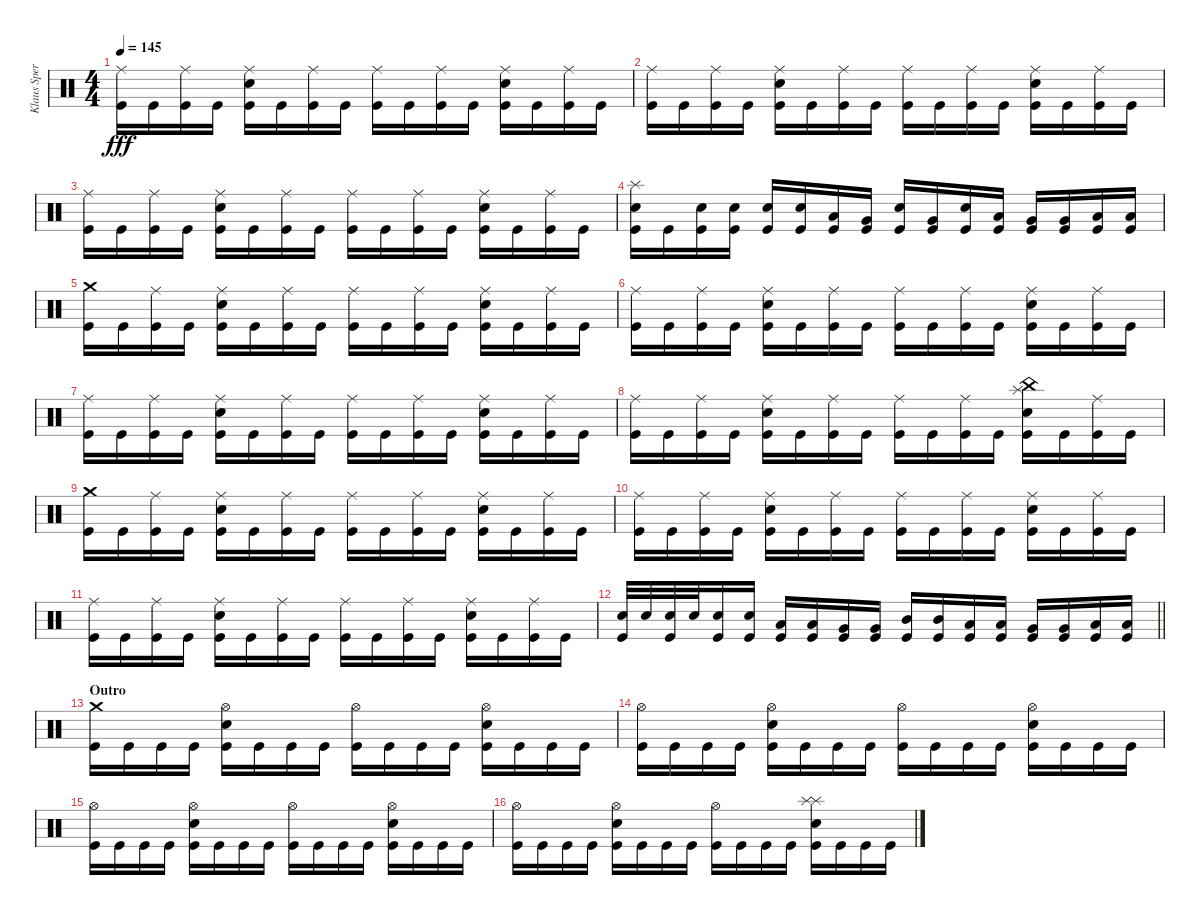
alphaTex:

\track ("Klaus Sperling" "Klaus Sper") {instrument percussion}
\staff {score}
\articulation defaults
\ts (4 4)
\tempo 145
\clef neutral
\ks c
("Ride (middle)" "Kick (hit)").16{dy fff} "Kick (hit)".16 ("Ride (middle)" "Kick (hit)").16 "Kick (hit)".16 ("Ride (middle)" "Electric Snare (hit)" "Kick (hit)").16 "Kick (hit)".16 ("Ride (middle)" "Kick (hit)").16 "Kick (hit)".16 ("Ride (middle)" "Kick (hit)").16 "Kick (hit)".16 ("Ride (middle)" "Kick (hit)").16 "Kick (hit)".16 ("Ride (middle)" "Electric Snare (hit)" "Kick (hit)").16 "Kick (hit)".16 ("Ride (middle)" "Kick (hit)").16 "Kick (hit)".16 |
("Ride (middle)" "Kick (hit)").16 "Kick (hit)".16 ("Ride (middle)" "Kick (hit)").16 "Kick (hit)".16 ("Ride (middle)" "Electric Snare (hit)" "Kick (hit)").16 "Kick (hit)".16 ("Ride (middle)" "Kick (hit)").16 "Kick (hit)".16 ("Ride (middle)" "Kick (hit)").16 "Kick (hit)".16 ("Ride (middle)" "Kick (hit)").16 "Kick (hit)".16 ("Ride (middle)" "Electric Snare (hit)" "Kick (hit)").16 "Kick (hit)".16 ("Ride (middle)" "Kick (hit)").16 "Kick (hit)".16 |
("Ride (middle)" "Kick (hit)").16 "Kick (hit)".16 ("Ride (middle)" "Kick (hit)").16 "Kick (hit)".16 ("Ride (middle)" "Electric Snare (hit)" "Kick (hit)").16 "Kick (hit)".16 ("Ride (middle)" "Kick (hit)").16 "Kick (hit)".16 ("Ride (middle)" "Kick (hit)").16 "Kick (hit)".16 ("Ride (middle)" "Kick (hit)").16 "Kick (hit)".16 ("Ride (middle)" "Electric Snare (hit)" "Kick (hit)").16 "Kick (hit)".16 ("Ride (middle)" "Kick (hit)").16 "Kick (hit)".16 |
("Splash (hit)" "Electric Snare (hit)" "Kick (hit)").16 "Kick (hit)".16 ("Electric Snare (hit)" "Kick (hit)").16 ("Electric Snare (hit)" "Kick (hit)").16 ("Electric Snare (hit)" "Kick (hit)").16 ("Electric Snare (hit)" "Kick (hit)").16 ("Low Tom (hit)" "Kick (hit)").16 ("Very Low Tom (hit)" "Kick (hit)").16 ("Electric Snare (hit)" "Kick (hit)").16 ("Very Low Tom (hit)" "Kick (hit)").16 ("Electric Snare (hit)" "Kick (hit)").16 ("Low Tom (hit)" "Kick (hit)").16 ("Very Low Tom (hit)" "Kick (hit)").16 ("Very Low Tom (hit)" "Kick (hit)").16 ("Low Floor Tom (hit)" "Kick (hit)").16 ("Low Floor Tom (hit)" "Kick (hit)").16 |
("Crash medium (hit)" "Kick (hit)").16 "Kick (hit)".16 ("Ride (middle)" "Kick (hit)").16 "Kick (hit)".16 ("Ride (middle)" "Electric Snare (hit)" "Kick (hit)").16 "Kick (hit)".16 ("Ride (middle)" "Kick (hit)").16 "Kick (hit)".16 ("Ride (middle)" "Kick (hit)").16 "Kick (hit)".16 ("Ride (middle)" "Kick (hit)").16 "Kick (hit)".16 ("Ride (middle)" "Electric Snare (hit)" "Kick (hit)").16 "Kick (hit)".16 ("Ride (middle)" "Kick (hit)").16 "Kick (hit)".16 |
("Ride (middle)" "Kick (hit)").16 "Kick (hit)".16 ("Ride (middle)" "Kick (hit)").16 "Kick (hit)".16 ("Ride (middle)" "Electric Snare (hit)" "Kick (hit)").16 "Kick (hit)".16 ("Ride (middle)" "Kick (hit)").16 "Kick (hit)".16 ("Ride (middle)" "Kick (hit)").16 "Kick (hit)".16 ("Ride (middle)" "Kick (hit)").16 "Kick (hit)".16 ("Ride (middle)" "Electric Snare (hit)" "Kick (hit)").16 "Kick (hit)".16 ("Ride (middle)" "Kick (hit)").16 "Kick (hit)".16 |
("Ride (middle)" "Kick (hit)").16 "Kick (hit)".16 ("Ride (middle)" "Kick (hit)").16 "Kick (hit)".16 ("Ride (middle)" "Electric Snare (hit)" "Kick (hit)").16 "Kick (hit)".16 ("Ride (middle)" "Kick (hit)").16 "Kick (hit)".16 ("Ride (middle)" "Kick (hit)").16 "Kick (hit)".16 ("Ride (middle)" "Kick (hit)").16 "Kick (hit)".16 ("Ride (middle)" "Electric Snare (hit)" "Kick (hit)").16 "Kick (hit)".16 ("Ride (middle)" "Kick (hit)").16 "Kick (hit)".16 |
("Ride (middle)" "Kick (hit)").16 "Kick (hit)".16 ("Ride (middle)" "Kick (hit)").16 "Kick (hit)".16 ("Ride (middle)" "Electric Snare (hit)" "Kick (hit)").16 "Kick (hit)".16 ("Ride (middle)" "Kick (hit)").16 "Kick (hit)".16 ("Ride (middle)" "Kick (hit)").16 "Kick (hit)".16 ("Ride (middle)" "Kick (hit)").16 "Kick (hit)".16 ("Splash (hit)" "China (hit)" "Electric Snare (hit)" "Kick (hit)").16 "Kick (hit)".16 ("Ride (middle)" "Kick (hit)").16 "Kick (hit)".16 |
("Crash medium (hit)" "Kick (hit)").16 "Kick (hit)".16 ("Ride (middle)" "Kick (hit)").16 "Kick (hit)".16 ("Ride (middle)" "Electric Snare (hit)" "Kick (hit)").16 "Kick (hit)".16 ("Ride (middle)" "Kick (hit)").16 "Kick (hit)".16 ("Ride (middle)" "Kick (hit)").16 "Kick (hit)".16 ("Ride (middle)" "Kick (hit)").16 "Kick (hit)".16 ("Ride (middle)" "Electric Snare (hit)" "Kick (hit)").16 "Kick (hit)".16 ("Ride (middle)" "Kick (hit)").16 "Kick (hit)".16 |
("Ride (middle)" "Kick (hit)").16 "Kick (hit)".16 ("Ride (middle)" "Kick (hit)").16 "Kick (hit)".16 ("Ride (middle)" "Electric Snare (hit)" "Kick (hit)").16 "Kick (hit)".16 ("Ride (middle)" "Kick (hit)").16 "Kick (hit)".16 ("Ride (middle)" "Kick (hit)").16 "Kick (hit)".16 ("Ride (middle)" "Kick (hit)").16 "Kick (hit)".16 ("Ride (middle)" "Electric Snare (hit)" "Kick (hit)").16 "Kick (hit)".16 ("Ride (middle)" "Kick (hit)").16 "Kick (hit)".16 |
("Ride (middle)" "Kick (hit)").16 "Kick (hit)".16 ("Ride (middle)" "Kick (hit)").16 "Kick (hit)".16 ("Ride (middle)" "Electric Snare (hit)" "Kick (hit)").16 "Kick (hit)".16 ("Ride (middle)" "Kick (hit)").16 "Kick (hit)".16 ("Ride (middle)" "Kick (hit)").16 "Kick (hit)".16 ("Ride (middle)" "Kick (hit)").16 "Kick (hit)".16 ("Ride (middle)" "Electric Snare (hit)" "Kick (hit)").16 "Kick (hit)".16 ("Ride (middle)" "Kick (hit)").16 "Kick (hit)".16 |
\barLineRight lightlight
("Electric Snare (hit)" "Kick (hit)").32 "Electric Snare (hit)".32 ("Electric Snare (hit)" "Kick (hit)").32 "Electric Snare (hit)".32 ("Electric Snare (hit)" "Kick (hit)").16 ("Electric Snare (hit)" "Kick (hit)").16 ("Low Tom (hit)" "Kick (hit)").16 ("Low Tom (hit)" "Kick (hit)").16 ("Very Low Tom (hit)" "Kick (hit)").16 ("Very Low Tom (hit)" "Kick (hit)").16 ("Mid Tom (hit)" "Kick (hit)").16 ("Mid Tom (hit)" "Kick (hit)").16 ("Low Tom (hit)" "Kick (hit)").16 ("Low Tom (hit)" "Kick (hit)").16 ("Very Low Tom (hit)" "Kick (hit)").16 ("Very Low Tom (hit)" "Kick (hit)").16 ("Low Floor Tom (hit)" "Kick (hit)").16 ("Low Floor Tom (hit)" "Kick (hit)").16 |
\section ("" "Outro")
("Crash medium (hit)" "Kick (hit)").16 "Kick (hit)".16 "Kick (hit)".16 "Kick (hit)".16 ("Hi-Hat (open)" "Electric Snare (hit)" "Kick (hit)").16 "Kick (hit)".16 "Kick (hit)".16 "Kick (hit)".16 ("Hi-Hat (open)" "Kick (hit)").16 "Kick (hit)".16 "Kick (hit)".16 "Kick (hit)".16 ("Hi-Hat (open)" "Electric Snare (hit)" "Kick (hit)").16 "Kick (hit)".16 "Kick (hit)".16 "Kick (hit)".16 |
("Hi-Hat (open)" "Kick (hit)").16 "Kick (hit)".16 "Kick (hit)".16 "Kick (hit)".16 ("Hi-Hat (open)" "Electric Snare (hit)" "Kick (hit)").16 "Kick (hit)".16 "Kick (hit)".16 "Kick (hit)".16 ("Hi-Hat (open)" "Kick (hit)").16 "Kick (hit)".16 "Kick (hit)".16 "Kick (hit)".16 ("Hi-Hat (open)" "Electric Snare (hit)" "Kick (hit)").16 "Kick (hit)".16 "Kick (hit)".16 "Kick (hit)".16 |
("Hi-Hat (open)" "Kick (hit)").16 "Kick (hit)".16 "Kick (hit)".16 "Kick (hit)".16 ("Hi-Hat (open)" "Electric Snare (hit)" "Kick (hit)").16 "Kick (hit)".16 "Kick (hit)".16 "Kick (hit)".16 ("Hi-Hat (open)" "Kick (hit)").16 "Kick (hit)".16 "Kick (hit)".16 "Kick (hit)".16 ("Hi-Hat (open)" "Electric Snare (hit)" "Kick (hit)").16 "Kick (hit)".16 "Kick (hit)".16 "Kick (hit)".16 |
("Hi-Hat (open)" "Kick (hit)").16 "Kick (hit)".16 "Kick (hit)".16 "Kick (hit)".16 ("Hi-Hat (open)" "Electric Snare (hit)" "Kick (hit)").16 "Kick (hit)".16 "Kick (hit)".16 "Kick (hit)".16 ("Hi-Hat (open)" "Kick (hit)").16 "Kick (hit)".16 "Kick (hit)".16 "Kick (hit)".16 ("Splash (hit)" "Splash (hit)" "Electric Snare (hit)" "Kick (hit)").16 "Kick (hit)".16 "Kick (hit)".16 "Kick (hit)".16
